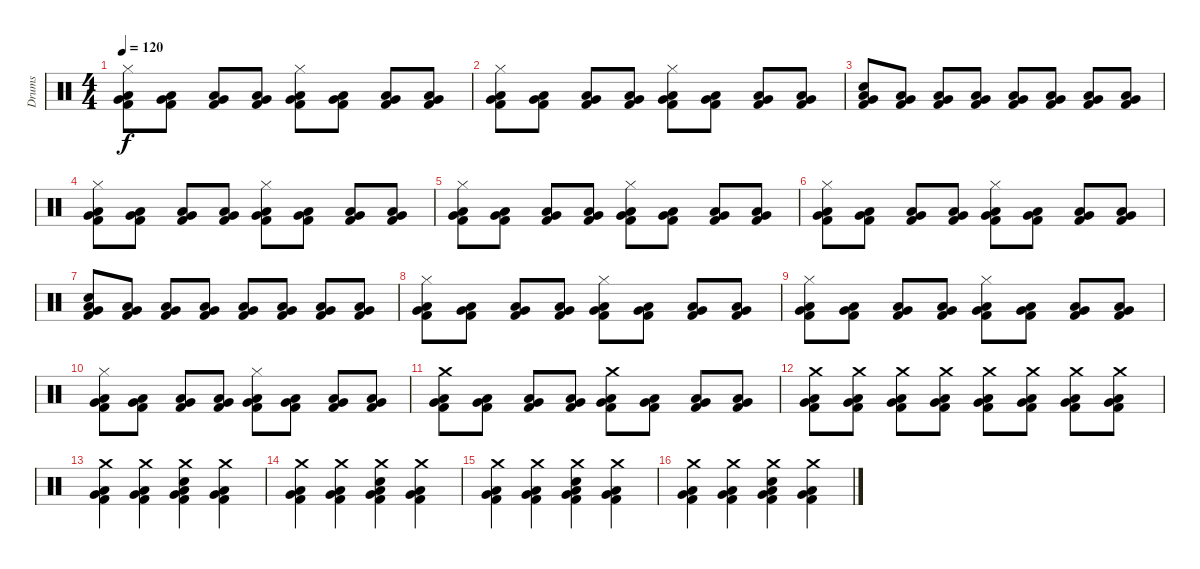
\track ("Drums" "Drums") {instrument percussion}
\staff {score}
\articulation defaults
\ts (4 4)
\tempo 120
\clef neutral
\ks c
("Hi-Hat (closed)" "Low Tom (hit)" "Very Low Tom (hit)" "Kick (hit) 2").8{dy f} ("Low Tom (hit)" "Very Low Tom (hit)" "Kick (hit) 2").8 ("Low Tom (hit)" "Very Low Tom (hit)" "Kick (hit) 2").8 ("Low Tom (hit)" "Very Low Tom (hit)" "Kick (hit) 2").8 ("Hi-Hat (closed)" "Low Tom (hit)" "Very Low Tom (hit)" "Kick (hit) 2").8 ("Low Tom (hit)" "Very Low Tom (hit)" "Kick (hit) 2").8 ("Low Tom (hit)" "Very Low Tom (hit)" "Kick (hit) 2").8 ("Low Tom (hit)" "Very Low Tom (hit)" "Kick (hit) 2").8 |
("Hi-Hat (closed)" "Low Tom (hit)" "Very Low Tom (hit)" "Kick (hit) 2").8 ("Low Tom (hit)" "Very Low Tom (hit)" "Kick (hit) 2").8 ("Low Tom (hit)" "Very Low Tom (hit)" "Kick (hit) 2").8 ("Low Tom (hit)" "Very Low Tom (hit)" "Kick (hit) 2").8 ("Hi-Hat (closed)" "Low Tom (hit)" "Very Low Tom (hit)" "Kick (hit) 2").8 ("Low Tom (hit)" "Very Low Tom (hit)" "Kick (hit) 2").8 ("Low Tom (hit)" "Very Low Tom (hit)" "Kick (hit) 2").8 ("Low Tom (hit)" "Very Low Tom (hit)" "Kick (hit) 2").8 |
("Snare (hit) 2" "Low Tom (hit)" "Very Low Tom (hit)" "Kick (hit) 2").8 ("Low Tom (hit)" "Very Low Tom (hit)" "Kick (hit) 2").8 ("Low Tom (hit)" "Very Low Tom (hit)" "Kick (hit) 2").8 ("Low Tom (hit)" "Very Low Tom (hit)" "Kick (hit) 2").8 ("Low Tom (hit)" "Very Low Tom (hit)" "Kick (hit) 2").8 ("Low Tom (hit)" "Very Low Tom (hit)" "Kick (hit) 2").8 ("Low Tom (hit)" "Very Low Tom (hit)" "Kick (hit) 2").8 ("Low Tom (hit)" "Very Low Tom (hit)" "Kick (hit) 2").8 |
("Hi-Hat (closed)" "Low Tom (hit)" "Very Low Tom (hit)" "Kick (hit) 2").8 ("Low Tom (hit)" "Very Low Tom (hit)" "Kick (hit) 2").8 ("Low Tom (hit)" "Very Low Tom (hit)" "Kick (hit) 2").8 ("Low Tom (hit)" "Very Low Tom (hit)" "Kick (hit) 2").8 ("Hi-Hat (closed)" "Low Tom (hit)" "Very Low Tom (hit)" "Kick (hit) 2").8 ("Low Tom (hit)" "Very Low Tom (hit)" "Kick (hit) 2").8 ("Low Tom (hit)" "Very Low Tom (hit)" "Kick (hit) 2").8 ("Low Tom (hit)" "Very Low Tom (hit)" "Kick (hit) 2").8 |
("Hi-Hat (closed)" "Low Tom (hit)" "Very Low Tom (hit)" "Kick (hit) 2").8 ("Low Tom (hit)" "Very Low Tom (hit)" "Kick (hit) 2").8 ("Low Tom (hit)" "Very Low Tom (hit)" "Kick (hit) 2").8 ("Low Tom (hit)" "Very Low Tom (hit)" "Kick (hit) 2").8 ("Hi-Hat (closed)" "Low Tom (hit)" "Very Low Tom (hit)" "Kick (hit) 2").8 ("Low Tom (hit)" "Very Low Tom (hit)" "Kick (hit) 2").8 ("Low Tom (hit)" "Very Low Tom (hit)" "Kick (hit) 2").8 ("Low Tom (hit)" "Very Low Tom (hit)" "Kick (hit) 2").8 |
("Hi-Hat (closed)" "Low Tom (hit)" "Very Low Tom (hit)" "Kick (hit) 2").8 ("Low Tom (hit)" "Very Low Tom (hit)" "Kick (hit) 2").8 ("Low Tom (hit)" "Very Low Tom (hit)" "Kick (hit) 2").8 ("Low Tom (hit)" "Very Low Tom (hit)" "Kick (hit) 2").8 ("Hi-Hat (closed)" "Low Tom (hit)" "Very Low Tom (hit)" "Kick (hit) 2").8 ("Low Tom (hit)" "Very Low Tom (hit)" "Kick (hit) 2").8 ("Low Tom (hit)" "Very Low Tom (hit)" "Kick (hit) 2").8 ("Low Tom (hit)" "Very Low Tom (hit)" "Kick (hit) 2").8 |
("Snare (hit) 2" "Low Tom (hit)" "Very Low Tom (hit)" "Kick (hit) 2").8 ("Low Tom (hit)" "Very Low Tom (hit)" "Kick (hit) 2").8 ("Low Tom (hit)" "Very Low Tom (hit)" "Kick (hit) 2").8 ("Low Tom (hit)" "Very Low Tom (hit)" "Kick (hit) 2").8 ("Low Tom (hit)" "Very Low Tom (hit)" "Kick (hit) 2").8 ("Low Tom (hit)" "Very Low Tom (hit)" "Kick (hit) 2").8 ("Low Tom (hit)" "Very Low Tom (hit)" "Kick (hit) 2").8 ("Low Tom (hit)" "Very Low Tom (hit)" "Kick (hit) 2").8 |
("Hi-Hat (closed)" "Low Tom (hit)" "Very Low Tom (hit)" "Kick (hit) 2").8 ("Low Tom (hit)" "Very Low Tom (hit)" "Kick (hit) 2").8 ("Low Tom (hit)" "Very Low Tom (hit)" "Kick (hit) 2").8 ("Low Tom (hit)" "Very Low Tom (hit)" "Kick (hit) 2").8 ("Hi-Hat (closed)" "Low Tom (hit)" "Very Low Tom (hit)" "Kick (hit) 2").8 ("Low Tom (hit)" "Very Low Tom (hit)" "Kick (hit) 2").8 ("Low Tom (hit)" "Very Low Tom (hit)" "Kick (hit) 2").8 ("Low Tom (hit)" "Very Low Tom (hit)" "Kick (hit) 2").8 |
("Hi-Hat (closed)" "Low Tom (hit)" "Very Low Tom (hit)" "Kick (hit) 2").8 ("Low Tom (hit)" "Very Low Tom (hit)" "Kick (hit) 2").8 ("Low Tom (hit)" "Very Low Tom (hit)" "Kick (hit) 2").8 ("Low Tom (hit)" "Very Low Tom (hit)" "Kick (hit) 2").8 ("Hi-Hat (closed)" "Low Tom (hit)" "Very Low Tom (hit)" "Kick (hit) 2").8 ("Low Tom (hit)" "Very Low Tom (hit)" "Kick (hit) 2").8 ("Low Tom (hit)" "Very Low Tom (hit)" "Kick (hit) 2").8 ("Low Tom (hit)" "Very Low Tom (hit)" "Kick (hit) 2").8 |
("Hi-Hat (closed)" "Low Tom (hit)" "Very Low Tom (hit)" "Kick (hit) 2").8 ("Low Tom (hit)" "Very Low Tom (hit)" "Kick (hit) 2").8 ("Low Tom (hit)" "Very Low Tom (hit)" "Kick (hit) 2").8 ("Low Tom (hit)" "Very Low Tom (hit)" "Kick (hit) 2").8 ("Hi-Hat (closed)" "Low Tom (hit)" "Very Low Tom (hit)" "Kick (hit) 2").8 ("Low Tom (hit)" "Very Low Tom (hit)" "Kick (hit) 2").8 ("Low Tom (hit)" "Very Low Tom (hit)" "Kick (hit) 2").8 ("Low Tom (hit)" "Very Low Tom (hit)" "Kick (hit) 2").8 |
("Crash medium (hit)" "Low Tom (hit)" "Very Low Tom (hit)" "Kick (hit) 2").8 ("Low Tom (hit)" "Very Low Tom (hit)" "Kick (hit) 2").8 ("Low Tom (hit)" "Very Low Tom (hit)" "Kick (hit) 2").8 ("Low Tom (hit)" "Very Low Tom (hit)" "Kick (hit) 2").8 ("Crash medium (hit)" "Low Tom (hit)" "Very Low Tom (hit)" "Kick (hit) 2").8 ("Low Tom (hit)" "Very Low Tom (hit)" "Kick (hit) 2").8 ("Low Tom (hit)" "Very Low Tom (hit)" "Kick (hit) 2").8 ("Low Tom (hit)" "Very Low Tom (hit)" "Kick (hit) 2").8{volume 3} |
("Crash medium (hit)" "Low Tom (hit)" "Very Low Tom (hit)" "Kick (hit) 2").8{volume 13} ("Crash medium (hit)" "Low Tom (hit)" "Very Low Tom (hit)" "Kick (hit) 2").8 ("Crash medium (hit)" "Low Tom (hit)" "Very Low Tom (hit)" "Kick (hit) 2").8 ("Crash medium (hit)" "Low Tom (hit)" "Very Low Tom (hit)" "Kick (hit) 2").8 ("Crash medium (hit)" "Low Tom (hit)" "Very Low Tom (hit)" "Kick (hit) 2").8 ("Crash medium (hit)" "Low Tom (hit)" "Very Low Tom (hit)" "Kick (hit) 2").8 ("Crash medium (hit)" "Low Tom (hit)" "Very Low Tom (hit)" "Kick (hit) 2").8 ("Crash medium (hit)" "Low Tom (hit)" "Very Low Tom (hit)" "Kick (hit) 2").8 |
("Crash medium (hit)" "Low Tom (hit)" "Very Low Tom (hit)" "Kick (hit) 2").4 ("Crash medium (hit)" "Low Tom (hit)" "Very Low Tom (hit)" "Kick (hit) 2").4 ("Crash medium (hit)" "Snare (hit) 2" "Low Tom (hit)" "Very Low Tom (hit)" "Kick (hit) 2").4 ("Crash medium (hit)" "Low Tom (hit)" "Very Low Tom (hit)" "Kick (hit) 2").4 |
("Crash medium (hit)" "Low Tom (hit)" "Very Low Tom (hit)" "Kick (hit) 2").4 ("Crash medium (hit)" "Low Tom (hit)" "Very Low Tom (hit)" "Kick (hit) 2").4 ("Crash medium (hit)" "Snare (hit) 2" "Low Tom (hit)" "Very Low Tom (hit)" "Kick (hit) 2").4 ("Crash medium (hit)" "Low Tom (hit)" "Very Low Tom (hit)" "Kick (hit) 2").4 |
("Crash medium (hit)" "Low Tom (hit)" "Very Low Tom (hit)" "Kick (hit) 2").4 ("Crash medium (hit)" "Low Tom (hit)" "Very Low Tom (hit)" "Kick (hit) 2").4 ("Crash medium (hit)" "Snare (hit) 2" "Low Tom (hit)" "Very Low Tom (hit)" "Kick (hit) 2").4 ("Crash medium (hit)" "Low Tom (hit)" "Very Low Tom (hit)" "Kick (hit) 2").4 |
("Crash medium (hit)" "Low Tom (hit)" "Very Low Tom (hit)" "Kick (hit) 2").4 ("Crash medium (hit)" "Low Tom (hit)" "Very Low Tom (hit)" "Kick (hit) 2").4 ("Crash medium (hit)" "Snare (hit) 2" "Low Tom (hit)" "Very Low Tom (hit)" "Kick (hit) 2").4 ("Crash medium (hit)" "Low Tom (hit)" "Very Low Tom (hit)" "Kick (hit) 2").4
